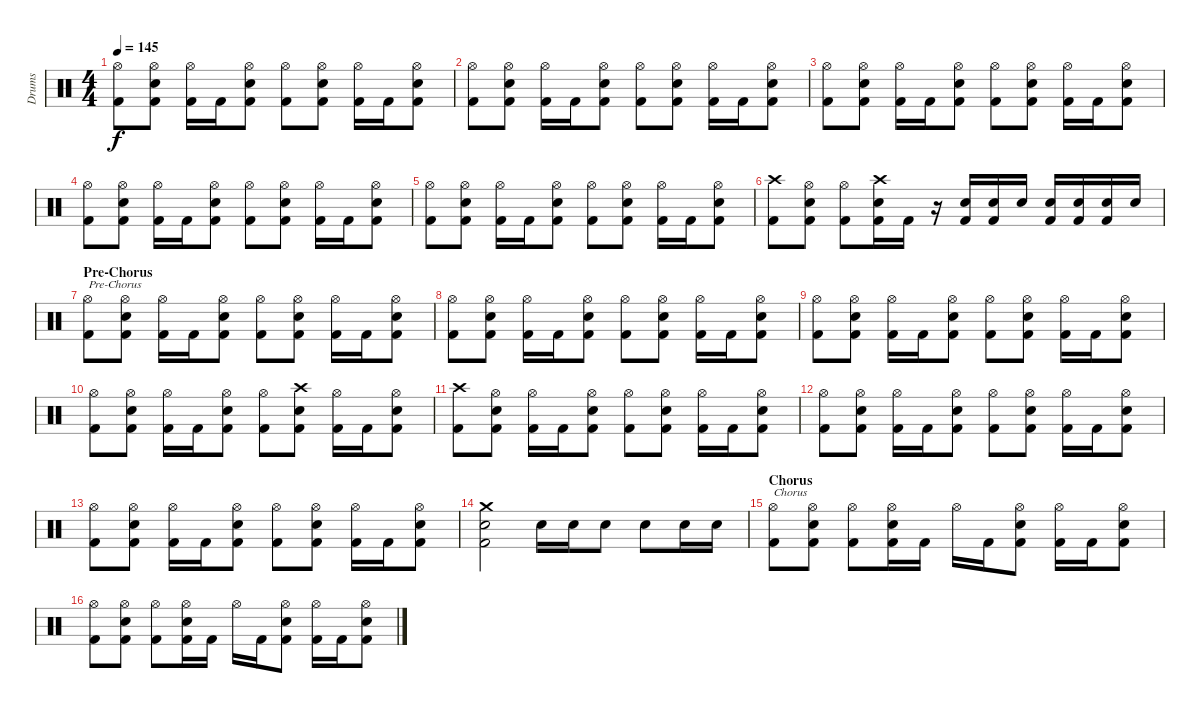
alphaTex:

\track ("Drums" "Drums") {instrument percussion}
\staff {score}
\articulation defaults
\ts (4 4)
\tempo 145
\clef neutral
\ks c
("Hi-Hat (open)" "Kick (hit) 2").8{dy f} ("Hi-Hat (open)" "Electric Snare (hit)" "Kick (hit) 2").8 ("Hi-Hat (open)" "Kick (hit) 2").16 "Kick (hit) 2".16 ("Hi-Hat (open)" "Electric Snare (hit)" "Kick (hit) 2").8 ("Hi-Hat (open)" "Kick (hit) 2").8 ("Hi-Hat (open)" "Electric Snare (hit)" "Kick (hit) 2").8 ("Hi-Hat (open)" "Kick (hit) 2").16 "Kick (hit) 2".16 ("Hi-Hat (open)" "Electric Snare (hit)" "Kick (hit) 2").8 |
("Hi-Hat (open)" "Kick (hit) 2").8 ("Hi-Hat (open)" "Electric Snare (hit)" "Kick (hit) 2").8 ("Hi-Hat (open)" "Kick (hit) 2").16 "Kick (hit) 2".16 ("Hi-Hat (open)" "Electric Snare (hit)" "Kick (hit) 2").8 ("Hi-Hat (open)" "Kick (hit) 2").8 ("Hi-Hat (open)" "Electric Snare (hit)" "Kick (hit) 2").8 ("Hi-Hat (open)" "Kick (hit) 2").16 "Kick (hit) 2".16 ("Hi-Hat (open)" "Electric Snare (hit)" "Kick (hit) 2").8 |
("Hi-Hat (open)" "Kick (hit) 2").8 ("Hi-Hat (open)" "Electric Snare (hit)" "Kick (hit) 2").8 ("Hi-Hat (open)" "Kick (hit) 2").16 "Kick (hit) 2".16 ("Hi-Hat (open)" "Electric Snare (hit)" "Kick (hit) 2").8 ("Hi-Hat (open)" "Kick (hit) 2").8 ("Hi-Hat (open)" "Electric Snare (hit)" "Kick (hit) 2").8 ("Hi-Hat (open)" "Kick (hit) 2").16 "Kick (hit) 2".16 ("Hi-Hat (open)" "Electric Snare (hit)" "Kick (hit) 2").8 |
("Hi-Hat (open)" "Kick (hit) 2").8 ("Hi-Hat (open)" "Electric Snare (hit)" "Kick (hit) 2").8 ("Hi-Hat (open)" "Kick (hit) 2").16 "Kick (hit) 2".16 ("Hi-Hat (open)" "Electric Snare (hit)" "Kick (hit) 2").8 ("Hi-Hat (open)" "Kick (hit) 2").8 ("Hi-Hat (open)" "Electric Snare (hit)" "Kick (hit) 2").8 ("Hi-Hat (open)" "Kick (hit) 2").16 "Kick (hit) 2".16 ("Hi-Hat (open)" "Electric Snare (hit)" "Kick (hit) 2").8 |
("Hi-Hat (open)" "Kick (hit) 2").8 ("Hi-Hat (open)" "Electric Snare (hit)" "Kick (hit) 2").8 ("Hi-Hat (open)" "Kick (hit) 2").16 "Kick (hit) 2".16 ("Hi-Hat (open)" "Electric Snare (hit)" "Kick (hit) 2").8 ("Hi-Hat (open)" "Kick (hit) 2").8 ("Hi-Hat (open)" "Electric Snare (hit)" "Kick (hit) 2").8 ("Hi-Hat (open)" "Kick (hit) 2").16 "Kick (hit) 2".16 ("Hi-Hat (open)" "Electric Snare (hit)" "Kick (hit) 2").8 |
("Crash high (hit)" "Kick (hit) 2").8 ("Hi-Hat (open)" "Electric Snare (hit)" "Kick (hit) 2").8 ("Hi-Hat (open)" "Kick (hit) 2").8 ("Crash high (hit)" "Electric Snare (hit)" "Kick (hit) 2").16 "Kick (hit) 2".16 r.16 ("Electric Snare (hit)" "Kick (hit) 2").16 ("Electric Snare (hit)" "Kick (hit) 2").16 "Electric Snare (hit)".16 ("Electric Snare (hit)" "Kick (hit) 2").16 ("Electric Snare (hit)" "Kick (hit) 2").16 ("Electric Snare (hit)" "Kick (hit) 2").16 "Electric Snare (hit)".16 |
\section ("" "Pre-Chorus")
("Hi-Hat (open)" "Kick (hit) 2").8{txt "Pre-Chorus"} ("Hi-Hat (open)" "Electric Snare (hit)" "Kick (hit) 2").8 ("Hi-Hat (open)" "Kick (hit) 2").16 "Kick (hit) 2".16 ("Hi-Hat (open)" "Electric Snare (hit)" "Kick (hit) 2").8 ("Hi-Hat (open)" "Kick (hit) 2").8 ("Hi-Hat (open)" "Electric Snare (hit)" "Kick (hit) 2").8 ("Hi-Hat (open)" "Kick (hit) 2").16 "Kick (hit) 2".16 ("Hi-Hat (open)" "Electric Snare (hit)" "Kick (hit) 2").8 |
("Hi-Hat (open)" "Kick (hit) 2").8 ("Hi-Hat (open)" "Electric Snare (hit)" "Kick (hit) 2").8 ("Hi-Hat (open)" "Kick (hit) 2").16 "Kick (hit) 2".16 ("Hi-Hat (open)" "Electric Snare (hit)" "Kick (hit) 2").8 ("Hi-Hat (open)" "Kick (hit) 2").8 ("Hi-Hat (open)" "Electric Snare (hit)" "Kick (hit) 2").8 ("Hi-Hat (open)" "Kick (hit) 2").16 "Kick (hit) 2".16 ("Hi-Hat (open)" "Electric Snare (hit)" "Kick (hit) 2").8 |
("Hi-Hat (open)" "Kick (hit) 2").8 ("Hi-Hat (open)" "Electric Snare (hit)" "Kick (hit) 2").8 ("Hi-Hat (open)" "Kick (hit) 2").16 "Kick (hit) 2".16 ("Hi-Hat (open)" "Electric Snare (hit)" "Kick (hit) 2").8 ("Hi-Hat (open)" "Kick (hit) 2").8 ("Hi-Hat (open)" "Electric Snare (hit)" "Kick (hit) 2").8 ("Hi-Hat (open)" "Kick (hit) 2").16 "Kick (hit) 2".16 ("Hi-Hat (open)" "Electric Snare (hit)" "Kick (hit) 2").8 |
("Hi-Hat (open)" "Kick (hit) 2").8 ("Hi-Hat (open)" "Electric Snare (hit)" "Kick (hit) 2").8 ("Hi-Hat (open)" "Kick (hit) 2").16 "Kick (hit) 2".16 ("Hi-Hat (open)" "Electric Snare (hit)" "Kick (hit) 2").8 ("Hi-Hat (open)" "Kick (hit) 2").8 ("Crash high (hit)" "Electric Snare (hit)" "Kick (hit) 2").8 ("Hi-Hat (open)" "Kick (hit) 2").16 "Kick (hit) 2".16 ("Hi-Hat (open)" "Electric Snare (hit)" "Kick (hit) 2").8 |
("Crash high (hit)" "Kick (hit) 2").8 ("Hi-Hat (open)" "Electric Snare (hit)" "Kick (hit) 2").8 ("Hi-Hat (open)" "Kick (hit) 2").16 "Kick (hit) 2".16 ("Hi-Hat (open)" "Electric Snare (hit)" "Kick (hit) 2").8 ("Hi-Hat (open)" "Kick (hit) 2").8 ("Hi-Hat (open)" "Electric Snare (hit)" "Kick (hit) 2").8 ("Hi-Hat (open)" "Kick (hit) 2").16 "Kick (hit) 2".16 ("Hi-Hat (open)" "Electric Snare (hit)" "Kick (hit) 2").8 |
("Hi-Hat (open)" "Kick (hit) 2").8 ("Hi-Hat (open)" "Electric Snare (hit)" "Kick (hit) 2").8 ("Hi-Hat (open)" "Kick (hit) 2").16 "Kick (hit) 2".16 ("Hi-Hat (open)" "Electric Snare (hit)" "Kick (hit) 2").8 ("Hi-Hat (open)" "Kick (hit) 2").8 ("Hi-Hat (open)" "Electric Snare (hit)" "Kick (hit) 2").8 ("Hi-Hat (open)" "Kick (hit) 2").16 "Kick (hit) 2".16 ("Hi-Hat (open)" "Electric Snare (hit)" "Kick (hit) 2").8 |
("Hi-Hat (open)" "Kick (hit) 2").8 ("Hi-Hat (open)" "Electric Snare (hit)" "Kick (hit) 2").8 ("Hi-Hat (open)" "Kick (hit) 2").16 "Kick (hit) 2".16 ("Hi-Hat (open)" "Electric Snare (hit)" "Kick (hit) 2").8 ("Hi-Hat (open)" "Kick (hit) 2").8 ("Hi-Hat (open)" "Electric Snare (hit)" "Kick (hit) 2").8 ("Hi-Hat (open)" "Kick (hit) 2").16 "Kick (hit) 2".16 ("Hi-Hat (open)" "Electric Snare (hit)" "Kick (hit) 2").8 |
("Crash medium (hit)" "Electric Snare (hit)" "Kick (hit) 2").2 "Electric Snare (hit)".16 "Electric Snare (hit)".16 "Electric Snare (hit)".8 "Electric Snare (hit)".8 "Electric Snare (hit)".16 "Electric Snare (hit)".16 |
\section ("" "Chorus")
("Hi-Hat (open)" "Kick (hit) 2").8{txt "Chorus"} ("Hi-Hat (open)" "Electric Snare (hit)" "Kick (hit) 2").8 ("Hi-Hat (open)" "Kick (hit) 2").8 ("Hi-Hat (open)" "Electric Snare (hit)" "Kick (hit) 2").16 "Kick (hit) 2".16 "Hi-Hat (open)".16 "Kick (hit) 2".16 ("Hi-Hat (open)" "Electric Snare (hit)" "Kick (hit) 2").8 ("Hi-Hat (open)" "Kick (hit) 2").16 "Kick (hit) 2".16 ("Hi-Hat (open)" "Electric Snare (hit)" "Kick (hit) 2").8 |
("Hi-Hat (open)" "Kick (hit) 2").8 ("Hi-Hat (open)" "Electric Snare (hit)" "Kick (hit) 2").8 ("Hi-Hat (open)" "Kick (hit) 2").8 ("Hi-Hat (open)" "Electric Snare (hit)" "Kick (hit) 2").16 "Kick (hit) 2".16 "Hi-Hat (open)".16 "Kick (hit) 2".16 ("Hi-Hat (open)" "Electric Snare (hit)" "Kick (hit) 2").8 ("Hi-Hat (open)" "Kick (hit) 2").16 "Kick (hit) 2".16 ("Hi-Hat (open)" "Electric Snare (hit)" "Kick (hit) 2").8
